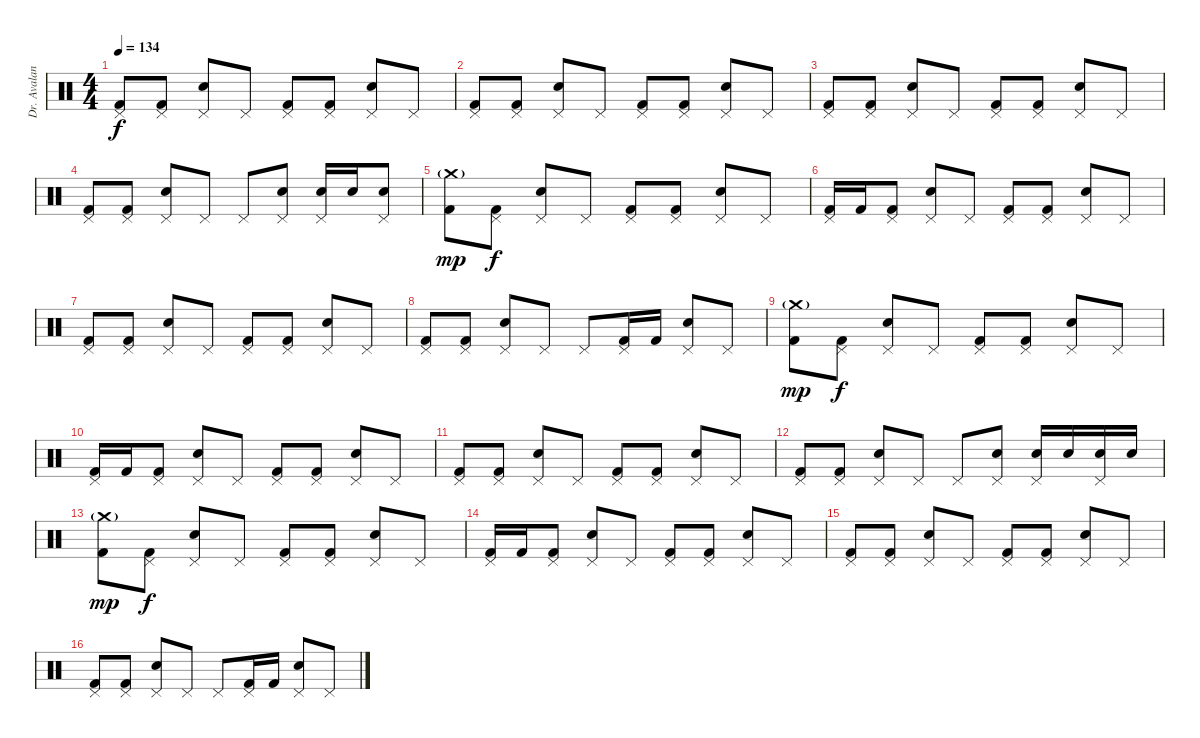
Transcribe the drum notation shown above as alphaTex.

\track ("Dr. Avalanche" "Dr. Avalan") {instrument percussion}
\staff {score}
\articulation defaults
\ts (4 4)
\tempo 134
\clef neutral
\ks c
("Pedal Hi-Hat (hit)" "Kick (hit) 2").8{dy f} ("Pedal Hi-Hat (hit)" "Kick (hit) 2").8 ("Pedal Hi-Hat (hit)" "Electric Snare (hit)").8 "Pedal Hi-Hat (hit)".8 ("Pedal Hi-Hat (hit)" "Kick (hit) 2").8 ("Pedal Hi-Hat (hit)" "Kick (hit) 2").8 ("Pedal Hi-Hat (hit)" "Electric Snare (hit)").8 "Pedal Hi-Hat (hit)".8 |
("Pedal Hi-Hat (hit)" "Kick (hit) 2").8 ("Pedal Hi-Hat (hit)" "Kick (hit) 2").8 ("Pedal Hi-Hat (hit)" "Electric Snare (hit)").8 "Pedal Hi-Hat (hit)".8 ("Pedal Hi-Hat (hit)" "Kick (hit) 2").8 ("Pedal Hi-Hat (hit)" "Kick (hit) 2").8 ("Pedal Hi-Hat (hit)" "Electric Snare (hit)").8 "Pedal Hi-Hat (hit)".8 |
("Pedal Hi-Hat (hit)" "Kick (hit) 2").8 ("Pedal Hi-Hat (hit)" "Kick (hit) 2").8 ("Pedal Hi-Hat (hit)" "Electric Snare (hit)").8 "Pedal Hi-Hat (hit)".8 ("Pedal Hi-Hat (hit)" "Kick (hit) 2").8 ("Pedal Hi-Hat (hit)" "Kick (hit) 2").8 ("Pedal Hi-Hat (hit)" "Electric Snare (hit)").8 "Pedal Hi-Hat (hit)".8 |
("Pedal Hi-Hat (hit)" "Kick (hit) 2").8 ("Pedal Hi-Hat (hit)" "Kick (hit) 2").8 ("Pedal Hi-Hat (hit)" "Electric Snare (hit)").8 "Pedal Hi-Hat (hit)".8 "Pedal Hi-Hat (hit)".8 ("Pedal Hi-Hat (hit)" "Electric Snare (hit)").8 ("Pedal Hi-Hat (hit)" "Electric Snare (hit)").16 "Electric Snare (hit)".16 ("Pedal Hi-Hat (hit)" "Electric Snare (hit)").8 |
("Crash medium (hit)"{g} "Kick (hit) 2").8{dy mp} ("Pedal Hi-Hat (hit)" "Kick (hit) 2").8{dy f} ("Pedal Hi-Hat (hit)" "Electric Snare (hit)").8 "Pedal Hi-Hat (hit)".8 ("Pedal Hi-Hat (hit)" "Kick (hit) 2").8 ("Pedal Hi-Hat (hit)" "Kick (hit) 2").8 ("Pedal Hi-Hat (hit)" "Electric Snare (hit)").8 "Pedal Hi-Hat (hit)".8 |
("Pedal Hi-Hat (hit)" "Kick (hit) 2").16 "Kick (hit) 2".16 ("Pedal Hi-Hat (hit)" "Kick (hit) 2").8 ("Pedal Hi-Hat (hit)" "Electric Snare (hit)").8 "Pedal Hi-Hat (hit)".8 ("Pedal Hi-Hat (hit)" "Kick (hit) 2").8 ("Pedal Hi-Hat (hit)" "Kick (hit) 2").8 ("Pedal Hi-Hat (hit)" "Electric Snare (hit)").8 "Pedal Hi-Hat (hit)".8 |
("Pedal Hi-Hat (hit)" "Kick (hit) 2").8 ("Pedal Hi-Hat (hit)" "Kick (hit) 2").8 ("Pedal Hi-Hat (hit)" "Electric Snare (hit)").8 "Pedal Hi-Hat (hit)".8 ("Pedal Hi-Hat (hit)" "Kick (hit) 2").8 ("Pedal Hi-Hat (hit)" "Kick (hit) 2").8 ("Pedal Hi-Hat (hit)" "Electric Snare (hit)").8 "Pedal Hi-Hat (hit)".8 |
("Pedal Hi-Hat (hit)" "Kick (hit) 2").8 ("Pedal Hi-Hat (hit)" "Kick (hit) 2").8 ("Pedal Hi-Hat (hit)" "Electric Snare (hit)").8 "Pedal Hi-Hat (hit)".8 "Pedal Hi-Hat (hit)".8 ("Pedal Hi-Hat (hit)" "Kick (hit) 2").16 "Kick (hit) 2".16 ("Pedal Hi-Hat (hit)" "Electric Snare (hit)").8 "Pedal Hi-Hat (hit)".8 |
("Crash medium (hit)"{g} "Kick (hit) 2").8{dy mp} ("Pedal Hi-Hat (hit)" "Kick (hit) 2").8{dy f} ("Pedal Hi-Hat (hit)" "Electric Snare (hit)").8 "Pedal Hi-Hat (hit)".8 ("Pedal Hi-Hat (hit)" "Kick (hit) 2").8 ("Pedal Hi-Hat (hit)" "Kick (hit) 2").8 ("Pedal Hi-Hat (hit)" "Electric Snare (hit)").8 "Pedal Hi-Hat (hit)".8 |
("Pedal Hi-Hat (hit)" "Kick (hit) 2").16 "Kick (hit) 2".16 ("Pedal Hi-Hat (hit)" "Kick (hit) 2").8 ("Pedal Hi-Hat (hit)" "Electric Snare (hit)").8 "Pedal Hi-Hat (hit)".8 ("Pedal Hi-Hat (hit)" "Kick (hit) 2").8 ("Pedal Hi-Hat (hit)" "Kick (hit) 2").8 ("Pedal Hi-Hat (hit)" "Electric Snare (hit)").8 "Pedal Hi-Hat (hit)".8 |
("Pedal Hi-Hat (hit)" "Kick (hit) 2").8 ("Pedal Hi-Hat (hit)" "Kick (hit) 2").8 ("Pedal Hi-Hat (hit)" "Electric Snare (hit)").8 "Pedal Hi-Hat (hit)".8 ("Pedal Hi-Hat (hit)" "Kick (hit) 2").8 ("Pedal Hi-Hat (hit)" "Kick (hit) 2").8 ("Pedal Hi-Hat (hit)" "Electric Snare (hit)").8 "Pedal Hi-Hat (hit)".8 |
("Pedal Hi-Hat (hit)" "Kick (hit) 2").8 ("Pedal Hi-Hat (hit)" "Kick (hit) 2").8 ("Pedal Hi-Hat (hit)" "Electric Snare (hit)").8 "Pedal Hi-Hat (hit)".8 "Pedal Hi-Hat (hit)".8 ("Pedal Hi-Hat (hit)" "Electric Snare (hit)").8 ("Pedal Hi-Hat (hit)" "Electric Snare (hit)").16 "Electric Snare (hit)".16 ("Pedal Hi-Hat (hit)" "Electric Snare (hit)").16 "Electric Snare (hit)".16 |
("Crash medium (hit)"{g} "Kick (hit) 2").8{dy mp} ("Pedal Hi-Hat (hit)" "Kick (hit) 2").8{dy f} ("Pedal Hi-Hat (hit)" "Electric Snare (hit)").8 "Pedal Hi-Hat (hit)".8 ("Pedal Hi-Hat (hit)" "Kick (hit) 2").8 ("Pedal Hi-Hat (hit)" "Kick (hit) 2").8 ("Pedal Hi-Hat (hit)" "Electric Snare (hit)").8 "Pedal Hi-Hat (hit)".8 |
("Pedal Hi-Hat (hit)" "Kick (hit) 2").16 "Kick (hit) 2".16 ("Pedal Hi-Hat (hit)" "Kick (hit) 2").8 ("Pedal Hi-Hat (hit)" "Electric Snare (hit)").8 "Pedal Hi-Hat (hit)".8 ("Pedal Hi-Hat (hit)" "Kick (hit) 2").8 ("Pedal Hi-Hat (hit)" "Kick (hit) 2").8 ("Pedal Hi-Hat (hit)" "Electric Snare (hit)").8 "Pedal Hi-Hat (hit)".8 |
("Pedal Hi-Hat (hit)" "Kick (hit) 2").8 ("Pedal Hi-Hat (hit)" "Kick (hit) 2").8 ("Pedal Hi-Hat (hit)" "Electric Snare (hit)").8 "Pedal Hi-Hat (hit)".8 ("Pedal Hi-Hat (hit)" "Kick (hit) 2").8 ("Pedal Hi-Hat (hit)" "Kick (hit) 2").8 ("Pedal Hi-Hat (hit)" "Electric Snare (hit)").8 "Pedal Hi-Hat (hit)".8 |
("Pedal Hi-Hat (hit)" "Kick (hit) 2").8 ("Pedal Hi-Hat (hit)" "Kick (hit) 2").8 ("Pedal Hi-Hat (hit)" "Electric Snare (hit)").8 "Pedal Hi-Hat (hit)".8 "Pedal Hi-Hat (hit)".8 ("Pedal Hi-Hat (hit)" "Kick (hit) 2").16 "Kick (hit) 2".16 ("Pedal Hi-Hat (hit)" "Electric Snare (hit)").8 "Pedal Hi-Hat (hit)".8
